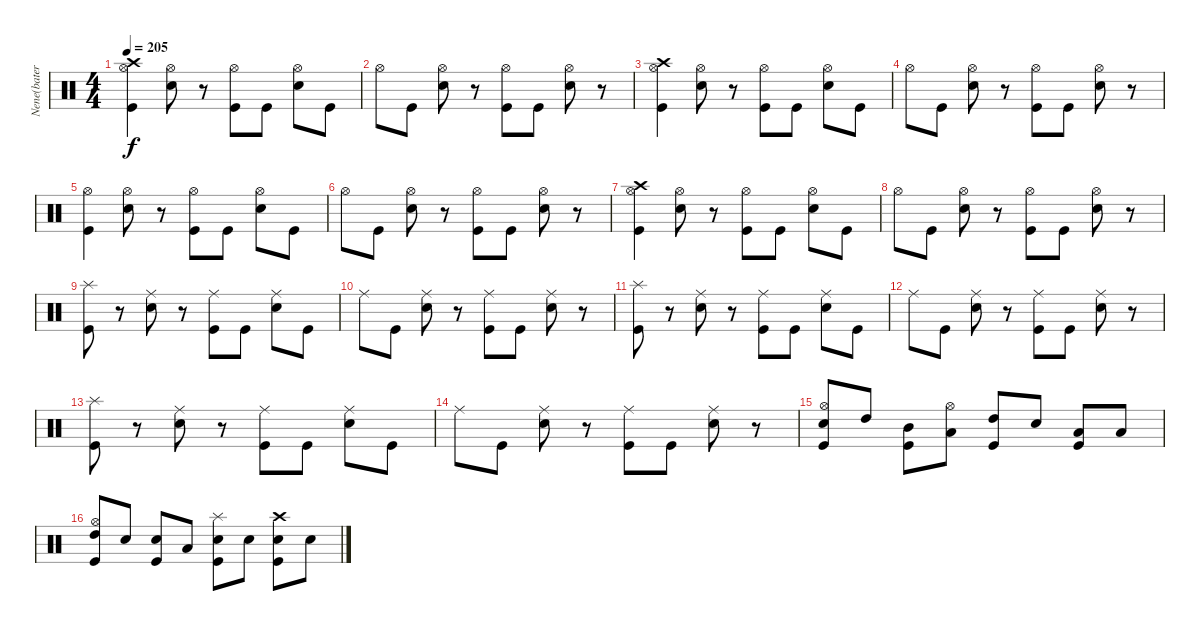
\track ("Nene(batera)" "Nene(bater") {instrument percussion}
\staff {score}
\articulation defaults
\ts (4 4)
\tempo 205
\clef neutral
\ks c
("Crash high (hit)" "Kick (hit)" "Hi-Hat (open)").4{dy f} ("Electric Snare (hit)" "Hi-Hat (open)").8 r.8 ("Kick (hit)" "Hi-Hat (open)").8 "Kick (hit)".8 ("Electric Snare (hit)" "Hi-Hat (open)").8 "Kick (hit)".8 |
"Hi-Hat (open)".8 "Kick (hit)".8 ("Electric Snare (hit)" "Hi-Hat (open)").8 r.8 ("Kick (hit)" "Hi-Hat (open)").8 "Kick (hit)".8 ("Electric Snare (hit)" "Hi-Hat (open)").8 r.8 |
("Crash high (hit)" "Kick (hit)" "Hi-Hat (open)").4 ("Electric Snare (hit)" "Hi-Hat (open)").8 r.8 ("Kick (hit)" "Hi-Hat (open)").8 "Kick (hit)".8 ("Electric Snare (hit)" "Hi-Hat (open)").8 "Kick (hit)".8 |
"Hi-Hat (open)".8 "Kick (hit)".8 ("Electric Snare (hit)" "Hi-Hat (open)").8 r.8 ("Kick (hit)" "Hi-Hat (open)").8 "Kick (hit)".8 ("Electric Snare (hit)" "Hi-Hat (open)").8 r.8 |
("Kick (hit)" "Hi-Hat (open)").4 ("Electric Snare (hit)" "Hi-Hat (open)").8 r.8 ("Kick (hit)" "Hi-Hat (open)").8 "Kick (hit)".8 ("Electric Snare (hit)" "Hi-Hat (open)").8 "Kick (hit)".8 |
"Hi-Hat (open)".8 "Kick (hit)".8 ("Electric Snare (hit)" "Hi-Hat (open)").8 r.8 ("Kick (hit)" "Hi-Hat (open)").8 "Kick (hit)".8 ("Electric Snare (hit)" "Hi-Hat (open)").8 r.8 |
("Crash high (hit)" "Kick (hit)" "Hi-Hat (open)").4 ("Electric Snare (hit)" "Hi-Hat (open)").8 r.8 ("Kick (hit)" "Hi-Hat (open)").8 "Kick (hit)".8 ("Electric Snare (hit)" "Hi-Hat (open)").8 "Kick (hit)".8 |
"Hi-Hat (open)".8 "Kick (hit)".8 ("Electric Snare (hit)" "Hi-Hat (open)").8 r.8 ("Kick (hit)" "Hi-Hat (open)").8 "Kick (hit)".8 ("Electric Snare (hit)" "Hi-Hat (open)").8 r.8 |
("Splash (hit)" "Kick (hit)").8 r.8 ("Electric Snare (hit)" "Ride (middle)").8 r.8 ("Kick (hit)" "Ride (middle)").8 "Kick (hit)".8 ("Electric Snare (hit)" "Ride (middle)").8 "Kick (hit)".8 |
"Ride (middle)".8 "Kick (hit)".8 ("Electric Snare (hit)" "Ride (middle)").8 r.8 ("Kick (hit)" "Ride (middle)").8 "Kick (hit)".8 ("Electric Snare (hit)" "Ride (middle)").8 r.8 |
("Splash (hit)" "Kick (hit)").8 r.8 ("Electric Snare (hit)" "Ride (middle)").8 r.8 ("Kick (hit)" "Ride (middle)").8 "Kick (hit)".8 ("Electric Snare (hit)" "Ride (middle)").8 "Kick (hit)".8 |
"Ride (middle)".8 "Kick (hit)".8 ("Electric Snare (hit)" "Ride (middle)").8 r.8 ("Kick (hit)" "Ride (middle)").8 "Kick (hit)".8 ("Electric Snare (hit)" "Ride (middle)").8 r.8 |
("Splash (hit)" "Kick (hit)").8 r.8 ("Electric Snare (hit)" "Ride (middle)").8 r.8 ("Kick (hit)" "Ride (middle)").8 "Kick (hit)".8 ("Electric Snare (hit)" "Ride (middle)").8 "Kick (hit)".8 |
"Ride (middle)".8 "Kick (hit)".8 ("Electric Snare (hit)" "Ride (middle)").8 r.8 ("Kick (hit)" "Ride (middle)").8 "Kick (hit)".8 ("Electric Snare (hit)" "Ride (middle)").8 r.8 |
("Hi-Hat (open)" "Electric Snare (hit)" "Kick (hit)").8 "High Tom (hit)".8 ("Mid Tom (hit)" "Kick (hit)").8 ("Hi-Hat (open)" "Low Tom (hit)").8 ("High Tom (hit)" "Kick (hit)").8 "Electric Snare (hit)".8 ("Low Tom (hit)" "Kick (hit)").8 "Low Tom (hit)".8 |
("Hi-Hat (open)" "High Tom (hit)" "Kick (hit)").8 "Electric Snare (hit)".8 ("Electric Snare (hit)" "Kick (hit)").8 "Low Tom (hit)".8 ("Splash (hit)" "Electric Snare (hit)" "Kick (hit)").8 "Electric Snare (hit)".8 ("Crash high (hit)" "Electric Snare (hit)" "Kick (hit)").8 "Electric Snare (hit)".8
